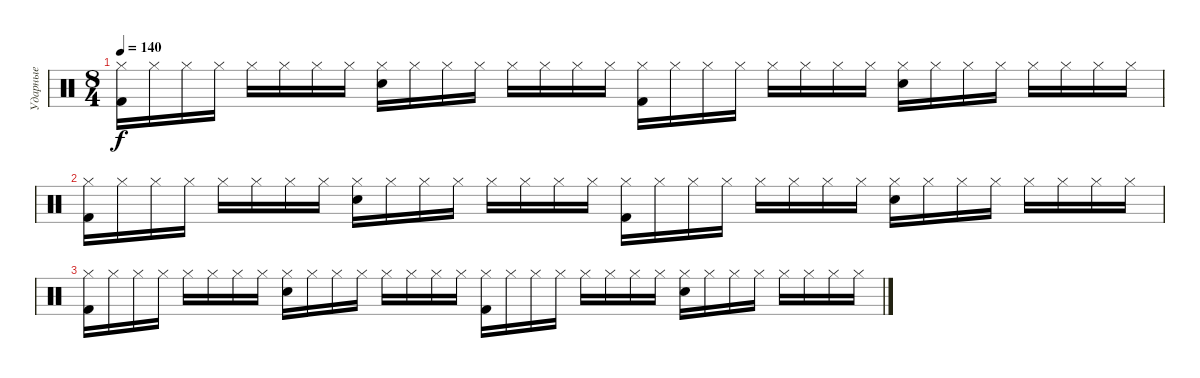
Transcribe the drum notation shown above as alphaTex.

\track ("Ударные" "Ударные") {instrument percussion}
\staff {score}
\articulation defaults
\ts (8 4)
\tempo 140
\clef neutral
\ks c
("Hi-Hat (closed)" "Kick (hit) 2").16{dy f} "Hi-Hat (closed)".16 "Hi-Hat (closed)".16 "Hi-Hat (closed)".16 "Hi-Hat (closed)".16 "Hi-Hat (closed)".16 "Hi-Hat (closed)".16 "Hi-Hat (closed)".16 ("Hi-Hat (closed)" "Snare (hit) 2").16 "Hi-Hat (closed)".16 "Hi-Hat (closed)".16 "Hi-Hat (closed)".16 "Hi-Hat (closed)".16 "Hi-Hat (closed)".16 "Hi-Hat (closed)".16 "Hi-Hat (closed)".16 ("Hi-Hat (closed)" "Kick (hit) 2").16 "Hi-Hat (closed)".16 "Hi-Hat (closed)".16 "Hi-Hat (closed)".16 "Hi-Hat (closed)".16 "Hi-Hat (closed)".16 "Hi-Hat (closed)".16 "Hi-Hat (closed)".16 ("Hi-Hat (closed)" "Snare (hit) 2").16 "Hi-Hat (closed)".16 "Hi-Hat (closed)".16 "Hi-Hat (closed)".16 "Hi-Hat (closed)".16 "Hi-Hat (closed)".16 "Hi-Hat (closed)".16 "Hi-Hat (closed)".16 |
("Hi-Hat (closed)" "Kick (hit) 2").16 "Hi-Hat (closed)".16 "Hi-Hat (closed)".16 "Hi-Hat (closed)".16 "Hi-Hat (closed)".16 "Hi-Hat (closed)".16 "Hi-Hat (closed)".16 "Hi-Hat (closed)".16 ("Hi-Hat (closed)" "Snare (hit) 2").16 "Hi-Hat (closed)".16 "Hi-Hat (closed)".16 "Hi-Hat (closed)".16 "Hi-Hat (closed)".16 "Hi-Hat (closed)".16 "Hi-Hat (closed)".16 "Hi-Hat (closed)".16 ("Hi-Hat (closed)" "Kick (hit) 2").16 "Hi-Hat (closed)".16 "Hi-Hat (closed)".16 "Hi-Hat (closed)".16 "Hi-Hat (closed)".16 "Hi-Hat (closed)".16 "Hi-Hat (closed)".16 "Hi-Hat (closed)".16 ("Hi-Hat (closed)" "Snare (hit) 2").16 "Hi-Hat (closed)".16 "Hi-Hat (closed)".16 "Hi-Hat (closed)".16 "Hi-Hat (closed)".16 "Hi-Hat (closed)".16 "Hi-Hat (closed)".16 "Hi-Hat (closed)".16 |
("Hi-Hat (closed)" "Kick (hit) 2").16 "Hi-Hat (closed)".16 "Hi-Hat (closed)".16 "Hi-Hat (closed)".16 "Hi-Hat (closed)".16 "Hi-Hat (closed)".16 "Hi-Hat (closed)".16 "Hi-Hat (closed)".16 ("Hi-Hat (closed)" "Snare (hit) 2").16 "Hi-Hat (closed)".16 "Hi-Hat (closed)".16 "Hi-Hat (closed)".16 "Hi-Hat (closed)".16 "Hi-Hat (closed)".16 "Hi-Hat (closed)".16 "Hi-Hat (closed)".16 ("Hi-Hat (closed)" "Kick (hit) 2").16 "Hi-Hat (closed)".16 "Hi-Hat (closed)".16 "Hi-Hat (closed)".16 "Hi-Hat (closed)".16 "Hi-Hat (closed)".16 "Hi-Hat (closed)".16 "Hi-Hat (closed)".16 ("Hi-Hat (closed)" "Snare (hit) 2").16 "Hi-Hat (closed)".16 "Hi-Hat (closed)".16 "Hi-Hat (closed)".16 "Hi-Hat (closed)".16 "Hi-Hat (closed)".16 "Hi-Hat (closed)".16 "Hi-Hat (closed)".16
